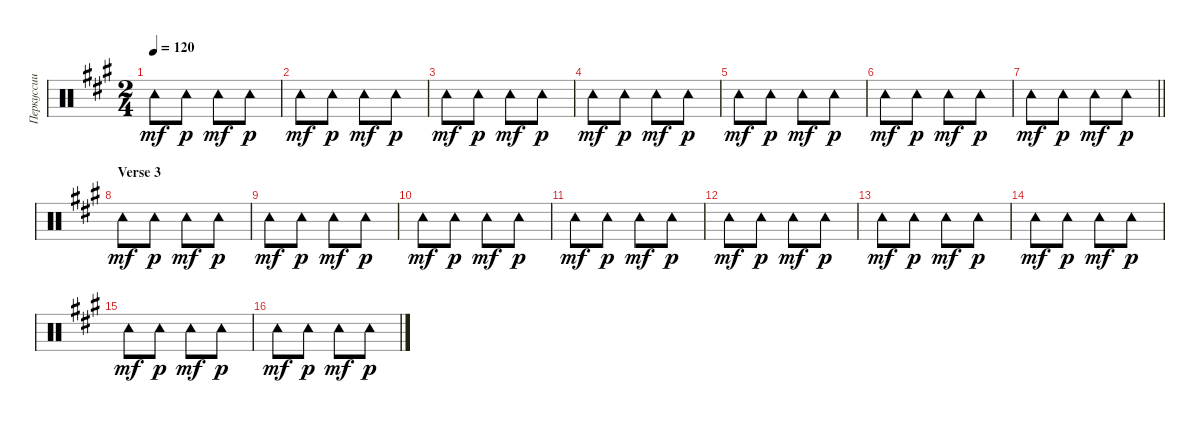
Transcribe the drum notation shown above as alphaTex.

\track ("Перкуссии" "Перкуссии") {instrument percussion}
\staff {score}
\articulation defaults
\ts (2 4)
\tempo 120
\clef neutral
\ks f#minor "Tambourine (hit)".8{dy mf} "Tambourine (hit)".8{dy p} "Tambourine (hit)".8{dy mf} "Tambourine (hit)".8{dy p}
|
"Tambourine (hit)".8{dy mf} "Tambourine (hit)".8{dy p} "Tambourine (hit)".8{dy mf} "Tambourine (hit)".8{dy p} |
"Tambourine (hit)".8{dy mf} "Tambourine (hit)".8{dy p} "Tambourine (hit)".8{dy mf} "Tambourine (hit)".8{dy p} |
"Tambourine (hit)".8{dy mf} "Tambourine (hit)".8{dy p} "Tambourine (hit)".8{dy mf} "Tambourine (hit)".8{dy p} |
"Tambourine (hit)".8{dy mf} "Tambourine (hit)".8{dy p} "Tambourine (hit)".8{dy mf} "Tambourine (hit)".8{dy p} |
"Tambourine (hit)".8{dy mf} "Tambourine (hit)".8{dy p} "Tambourine (hit)".8{dy mf} "Tambourine (hit)".8{dy p} |
\barLineRight lightlight "Tambourine (hit)".8{dy mf} "Tambourine (hit)".8{dy p} "Tambourine (hit)".8{dy mf} "Tambourine (hit)".8{dy p}
|
\section ("" "Verse 3")
"Tambourine (hit)".8{dy mf} "Tambourine (hit)".8{dy p} "Tambourine (hit)".8{dy mf} "Tambourine (hit)".8{dy p} |
"Tambourine (hit)".8{dy mf} "Tambourine (hit)".8{dy p} "Tambourine (hit)".8{dy mf} "Tambourine (hit)".8{dy p} |
"Tambourine (hit)".8{dy mf} "Tambourine (hit)".8{dy p} "Tambourine (hit)".8{dy mf} "Tambourine (hit)".8{dy p} |
"Tambourine (hit)".8{dy mf} "Tambourine (hit)".8{dy p} "Tambourine (hit)".8{dy mf} "Tambourine (hit)".8{dy p} |
"Tambourine (hit)".8{dy mf} "Tambourine (hit)".8{dy p} "Tambourine (hit)".8{dy mf} "Tambourine (hit)".8{dy p} |
"Tambourine (hit)".8{dy mf} "Tambourine (hit)".8{dy p} "Tambourine (hit)".8{dy mf} "Tambourine (hit)".8{dy p} |
"Tambourine (hit)".8{dy mf} "Tambourine (hit)".8{dy p} "Tambourine (hit)".8{dy mf} "Tambourine (hit)".8{dy p} |
"Tambourine (hit)".8{dy mf} "Tambourine (hit)".8{dy p} "Tambourine (hit)".8{dy mf} "Tambourine (hit)".8{dy p} |
"Tambourine (hit)".8{dy mf} "Tambourine (hit)".8{dy p} "Tambourine (hit)".8{dy mf} "Tambourine (hit)".8{dy p}
